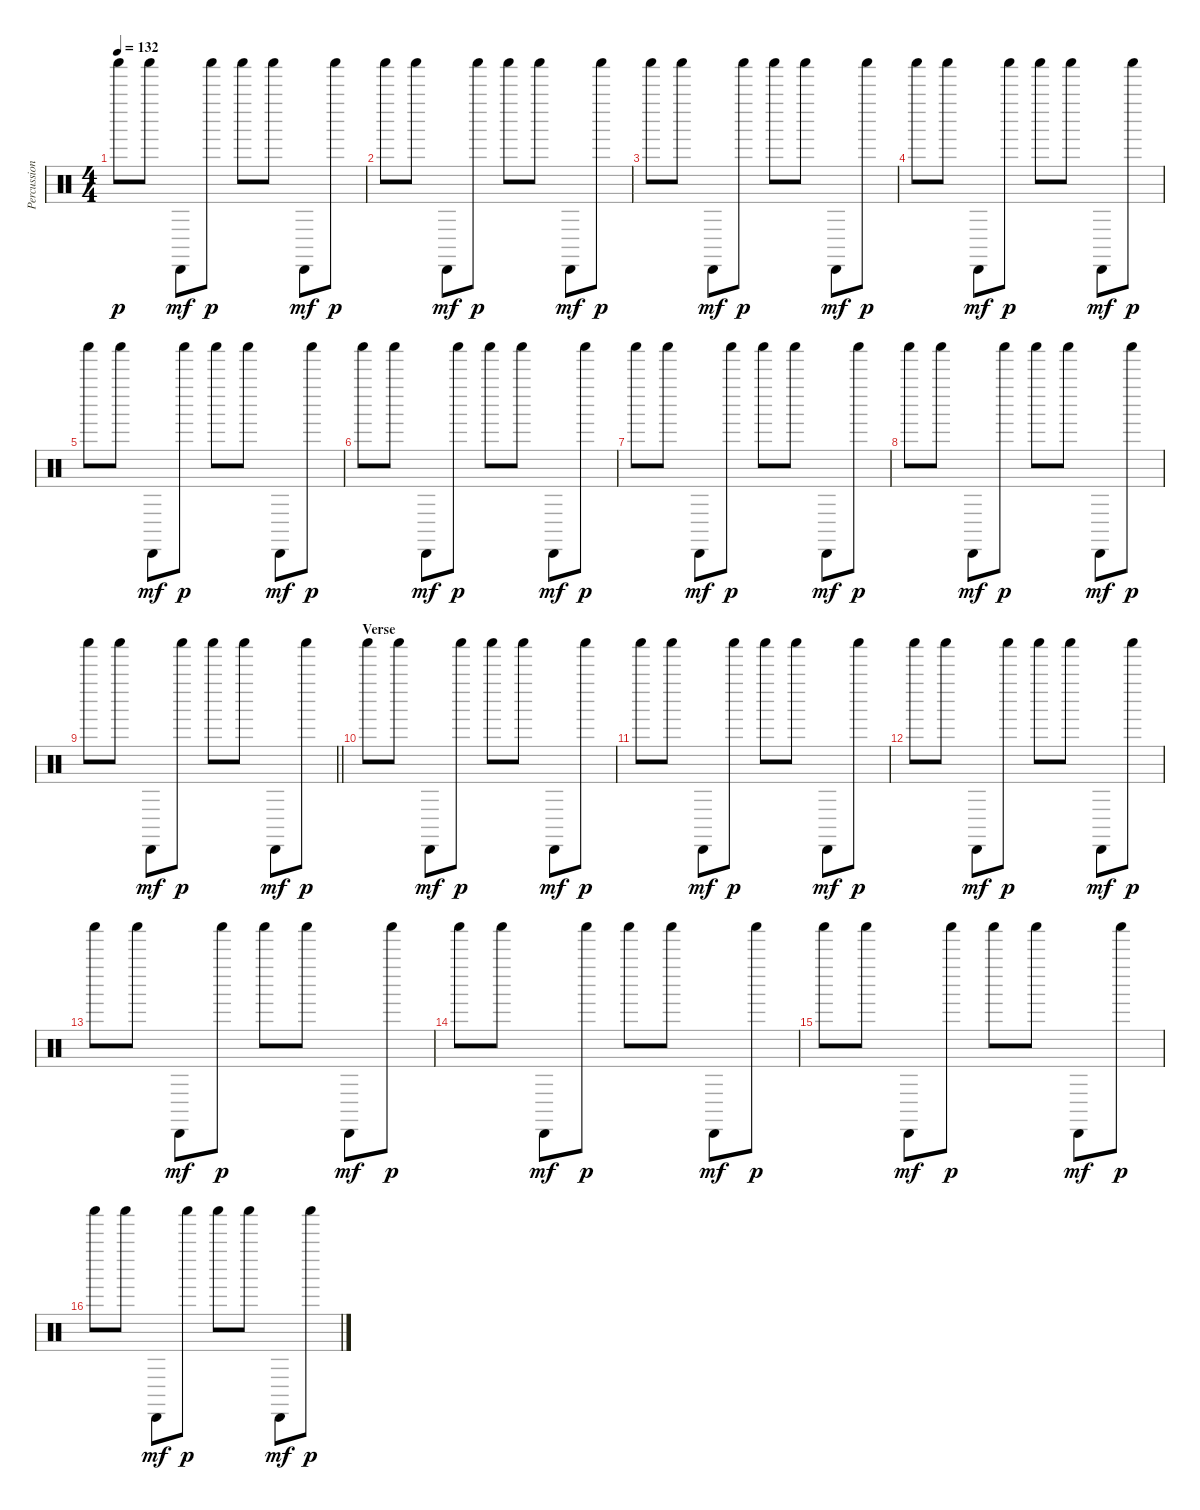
\track ("Percussions" "Percussion") {instrument percussion}
\staff {score}
\articulation defaults
\ts (4 4)
\tempo 132
\clef neutral
\ks c "Shaker (hit)".8{dy p} "Shaker (hit)".8 "Cabasa (hit)".8{dy mf} "Shaker (hit)".8{dy p} "Shaker (hit)".8 "Shaker (hit)".8 "Cabasa (hit)".8{dy mf} "Shaker (hit)".8{dy p}
|
"Shaker (hit)".8 "Shaker (hit)".8 "Cabasa (hit)".8{dy mf} "Shaker (hit)".8{dy p} "Shaker (hit)".8 "Shaker (hit)".8 "Cabasa (hit)".8{dy mf} "Shaker (hit)".8{dy p} |
"Shaker (hit)".8 "Shaker (hit)".8 "Cabasa (hit)".8{dy mf} "Shaker (hit)".8{dy p} "Shaker (hit)".8 "Shaker (hit)".8 "Cabasa (hit)".8{dy mf} "Shaker (hit)".8{dy p} |
"Shaker (hit)".8 "Shaker (hit)".8 "Cabasa (hit)".8{dy mf} "Shaker (hit)".8{dy p} "Shaker (hit)".8 "Shaker (hit)".8 "Cabasa (hit)".8{dy mf} "Shaker (hit)".8{dy p} |
"Shaker (hit)".8 "Shaker (hit)".8 "Cabasa (hit)".8{dy mf} "Shaker (hit)".8{dy p} "Shaker (hit)".8 "Shaker (hit)".8 "Cabasa (hit)".8{dy mf} "Shaker (hit)".8{dy p} |
"Shaker (hit)".8 "Shaker (hit)".8 "Cabasa (hit)".8{dy mf} "Shaker (hit)".8{dy p} "Shaker (hit)".8 "Shaker (hit)".8 "Cabasa (hit)".8{dy mf} "Shaker (hit)".8{dy p} |
"Shaker (hit)".8 "Shaker (hit)".8 "Cabasa (hit)".8{dy mf} "Shaker (hit)".8{dy p} "Shaker (hit)".8 "Shaker (hit)".8 "Cabasa (hit)".8{dy mf} "Shaker (hit)".8{dy p} |
"Shaker (hit)".8 "Shaker (hit)".8 "Cabasa (hit)".8{dy mf} "Shaker (hit)".8{dy p} "Shaker (hit)".8 "Shaker (hit)".8 "Cabasa (hit)".8{dy mf} "Shaker (hit)".8{dy p} |
\barLineRight lightlight "Shaker (hit)".8 "Shaker (hit)".8 "Cabasa (hit)".8{dy mf} "Shaker (hit)".8{dy p} "Shaker (hit)".8 "Shaker (hit)".8 "Cabasa (hit)".8{dy mf} "Shaker (hit)".8{dy p}
|
\section ("" "Verse")
"Shaker (hit)".8 "Shaker (hit)".8 "Cabasa (hit)".8{dy mf} "Shaker (hit)".8{dy p} "Shaker (hit)".8 "Shaker (hit)".8 "Cabasa (hit)".8{dy mf} "Shaker (hit)".8{dy p} |
"Shaker (hit)".8 "Shaker (hit)".8 "Cabasa (hit)".8{dy mf} "Shaker (hit)".8{dy p} "Shaker (hit)".8 "Shaker (hit)".8 "Cabasa (hit)".8{dy mf} "Shaker (hit)".8{dy p} |
"Shaker (hit)".8 "Shaker (hit)".8 "Cabasa (hit)".8{dy mf} "Shaker (hit)".8{dy p} "Shaker (hit)".8 "Shaker (hit)".8 "Cabasa (hit)".8{dy mf} "Shaker (hit)".8{dy p} |
"Shaker (hit)".8 "Shaker (hit)".8 "Cabasa (hit)".8{dy mf} "Shaker (hit)".8{dy p} "Shaker (hit)".8 "Shaker (hit)".8 "Cabasa (hit)".8{dy mf} "Shaker (hit)".8{dy p} |
"Shaker (hit)".8 "Shaker (hit)".8 "Cabasa (hit)".8{dy mf} "Shaker (hit)".8{dy p} "Shaker (hit)".8 "Shaker (hit)".8 "Cabasa (hit)".8{dy mf} "Shaker (hit)".8{dy p} |
"Shaker (hit)".8 "Shaker (hit)".8 "Cabasa (hit)".8{dy mf} "Shaker (hit)".8{dy p} "Shaker (hit)".8 "Shaker (hit)".8 "Cabasa (hit)".8{dy mf} "Shaker (hit)".8{dy p} |
"Shaker (hit)".8 "Shaker (hit)".8 "Cabasa (hit)".8{dy mf} "Shaker (hit)".8{dy p} "Shaker (hit)".8 "Shaker (hit)".8 "Cabasa (hit)".8{dy mf} "Shaker (hit)".8{dy p}
